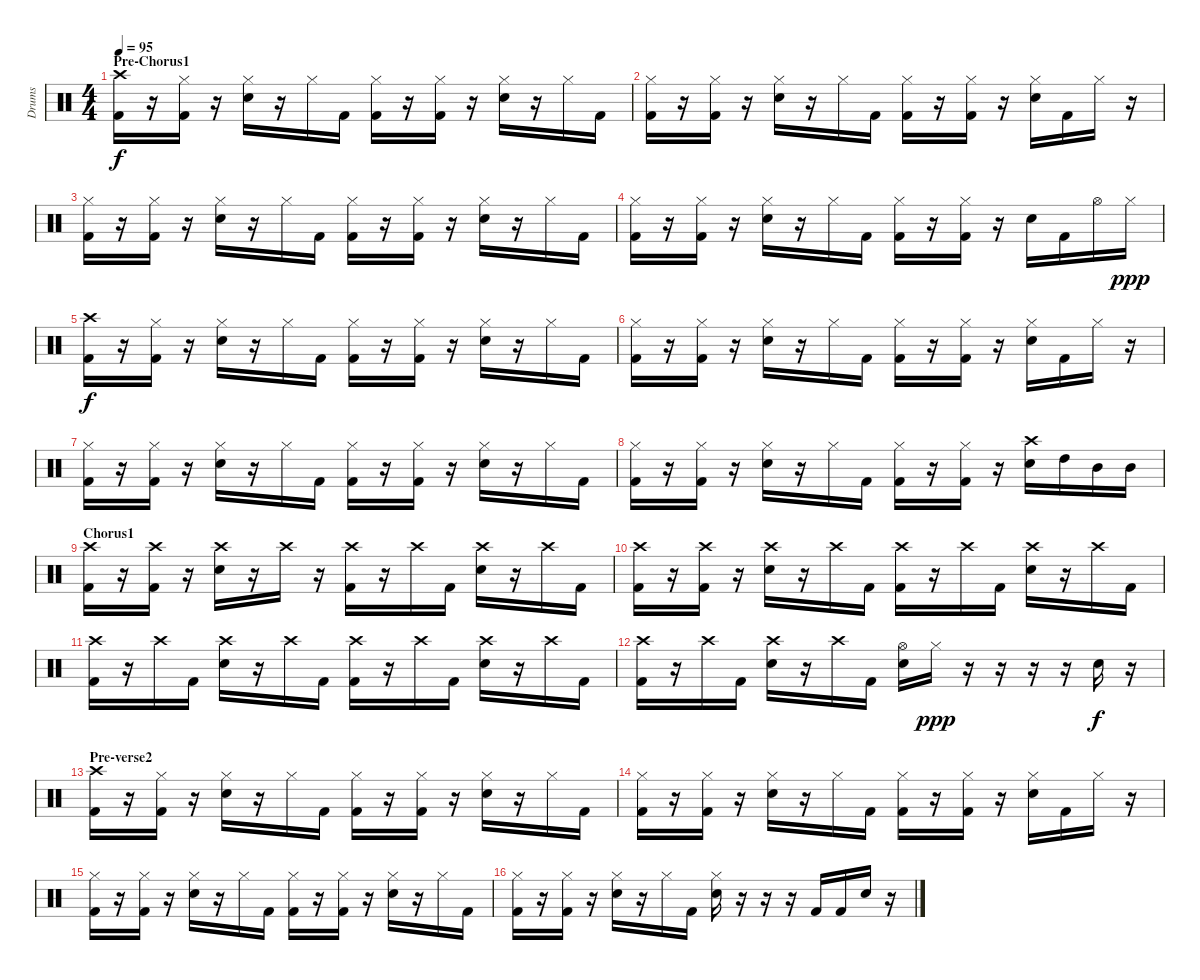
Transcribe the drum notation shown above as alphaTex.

\track ("Drums" "Drums") {instrument percussion}
\staff {score}
\articulation defaults
\ts (4 4)
\section ("" "Pre-Chorus1")
\tempo 95
\clef neutral
\ks c
("Crash high (hit)" "Kick (hit) 2").16{dy f} r.16 ("Hi-Hat (closed)" "Kick (hit) 2").16 r.16 ("Hi-Hat (closed)" "Snare (hit) 2").16 r.16 "Hi-Hat (closed)".16 "Kick (hit) 2".16 ("Hi-Hat (closed)" "Kick (hit) 2").16 r.16 ("Hi-Hat (closed)" "Kick (hit) 2").16 r.16 ("Hi-Hat (closed)" "Snare (hit) 2").16 r.16 "Hi-Hat (closed)".16 "Kick (hit) 2".16 |
("Hi-Hat (closed)" "Kick (hit) 2").16 r.16 ("Hi-Hat (closed)" "Kick (hit) 2").16 r.16 ("Hi-Hat (closed)" "Snare (hit) 2").16 r.16 "Hi-Hat (closed)".16 "Kick (hit) 2".16 ("Hi-Hat (closed)" "Kick (hit) 2").16 r.16 ("Hi-Hat (closed)" "Kick (hit) 2").16 r.16 ("Hi-Hat (closed)" "Snare (hit) 2").16 "Kick (hit) 2".16 "Hi-Hat (closed)".16 r.16 |
("Hi-Hat (closed)" "Kick (hit) 2").16 r.16 ("Hi-Hat (closed)" "Kick (hit) 2").16 r.16 ("Hi-Hat (closed)" "Snare (hit) 2").16 r.16 "Hi-Hat (closed)".16 "Kick (hit) 2".16 ("Hi-Hat (closed)" "Kick (hit) 2").16 r.16 ("Hi-Hat (closed)" "Kick (hit) 2").16 r.16 ("Hi-Hat (closed)" "Snare (hit) 2").16 r.16 "Hi-Hat (closed)".16 "Kick (hit) 2".16 |
("Hi-Hat (closed)" "Kick (hit) 2").16 r.16 ("Hi-Hat (closed)" "Kick (hit) 2").16 r.16 ("Hi-Hat (closed)" "Snare (hit) 2").16 r.16 "Hi-Hat (closed)".16 "Kick (hit) 2".16 ("Hi-Hat (closed)" "Kick (hit) 2").16 r.16 ("Hi-Hat (closed)" "Kick (hit) 2").16 r.16 "Snare (hit) 2".16 "Kick (hit) 2".16 "Hi-Hat (open)".16 "Hi-Hat (closed)".16{dy ppp} |
("Crash high (hit)" "Kick (hit) 2").16{dy f} r.16 ("Hi-Hat (closed)" "Kick (hit) 2").16 r.16 ("Hi-Hat (closed)" "Snare (hit) 2").16 r.16 "Hi-Hat (closed)".16 "Kick (hit) 2".16 ("Hi-Hat (closed)" "Kick (hit) 2").16 r.16 ("Hi-Hat (closed)" "Kick (hit) 2").16 r.16 ("Hi-Hat (closed)" "Snare (hit) 2").16 r.16 "Hi-Hat (closed)".16 "Kick (hit) 2".16 |
("Hi-Hat (closed)" "Kick (hit) 2").16 r.16 ("Hi-Hat (closed)" "Kick (hit) 2").16 r.16 ("Hi-Hat (closed)" "Snare (hit) 2").16 r.16 "Hi-Hat (closed)".16 "Kick (hit) 2".16 ("Hi-Hat (closed)" "Kick (hit) 2").16 r.16 ("Hi-Hat (closed)" "Kick (hit) 2").16 r.16 ("Hi-Hat (closed)" "Snare (hit) 2").16 "Kick (hit) 2".16 "Hi-Hat (closed)".16 r.16 |
("Hi-Hat (closed)" "Kick (hit) 2").16 r.16 ("Hi-Hat (closed)" "Kick (hit) 2").16 r.16 ("Hi-Hat (closed)" "Snare (hit) 2").16 r.16 "Hi-Hat (closed)".16 "Kick (hit) 2".16 ("Hi-Hat (closed)" "Kick (hit) 2").16 r.16 ("Hi-Hat (closed)" "Kick (hit) 2").16 r.16 ("Hi-Hat (closed)" "Snare (hit) 2").16 r.16 "Hi-Hat (closed)".16 "Kick (hit) 2".16 |
("Hi-Hat (closed)" "Kick (hit) 2").16 r.16 ("Hi-Hat (closed)" "Kick (hit) 2").16 r.16 ("Hi-Hat (closed)" "Snare (hit) 2").16 r.16 "Hi-Hat (closed)".16 "Kick (hit) 2".16 ("Hi-Hat (closed)" "Kick (hit) 2").16 r.16 ("Hi-Hat (closed)" "Kick (hit) 2").16 r.16 ("Crash high (hit)" "Snare (hit) 2").16 "High Tom (hit)".16 "Mid Tom (hit)".16 "Mid Tom (hit)".16 |
\section ("" "Chorus1")
("Crash high (hit)" "Kick (hit) 2").16 r.16 ("Crash high (hit)" "Kick (hit) 2").16 r.16 ("Crash high (hit)" "Snare (hit) 2").16 r.16 "Crash high (hit)".16 r.16 ("Crash high (hit)" "Kick (hit) 2").16 r.16 "Crash high (hit)".16 "Kick (hit) 2".16 ("Crash high (hit)" "Snare (hit) 2").16 r.16 "Crash high (hit)".16 "Kick (hit) 2".16 |
("Crash high (hit)" "Kick (hit) 2").16 r.16 ("Crash high (hit)" "Kick (hit) 2").16 r.16 ("Crash high (hit)" "Snare (hit) 2").16 r.16 "Crash high (hit)".16 "Kick (hit) 2".16 ("Crash high (hit)" "Kick (hit) 2").16 r.16 "Crash high (hit)".16 "Kick (hit) 2".16 ("Crash high (hit)" "Snare (hit) 2").16 r.16 "Crash high (hit)".16 "Kick (hit) 2".16 |
("Crash high (hit)" "Kick (hit) 2").16 r.16 "Crash high (hit)".16 "Kick (hit) 2".16 ("Crash high (hit)" "Snare (hit) 2").16 r.16 "Crash high (hit)".16 "Kick (hit) 2".16 ("Crash high (hit)" "Kick (hit) 2").16 r.16 "Crash high (hit)".16 "Kick (hit) 2".16 ("Crash high (hit)" "Snare (hit) 2").16 r.16 "Crash high (hit)".16 "Kick (hit) 2".16 |
("Crash high (hit)" "Kick (hit) 2").16 r.16 "Crash high (hit)".16 "Kick (hit) 2".16 ("Crash high (hit)" "Snare (hit) 2").16 r.16 "Crash high (hit)".16 "Kick (hit) 2".16 ("Hi-Hat (open)" "Snare (hit) 2").16 "Hi-Hat (closed)".16{dy ppp} r.16 r.16 r.16 r.16 "Snare (hit) 2".16{dy f} r.16 |
\section ("" "Pre-verse2")
("Crash high (hit)" "Kick (hit) 2").16 r.16 ("Hi-Hat (closed)" "Kick (hit) 2").16 r.16 ("Hi-Hat (closed)" "Snare (hit) 2").16 r.16 "Hi-Hat (closed)".16 "Kick (hit) 2".16 ("Hi-Hat (closed)" "Kick (hit) 2").16 r.16 ("Hi-Hat (closed)" "Kick (hit) 2").16 r.16 ("Hi-Hat (closed)" "Snare (hit) 2").16 r.16 "Hi-Hat (closed)".16 "Kick (hit) 2".16 |
("Hi-Hat (closed)" "Kick (hit) 2").16 r.16 ("Hi-Hat (closed)" "Kick (hit) 2").16 r.16 ("Hi-Hat (closed)" "Snare (hit) 2").16 r.16 "Hi-Hat (closed)".16 "Kick (hit) 2".16 ("Hi-Hat (closed)" "Kick (hit) 2").16 r.16 ("Hi-Hat (closed)" "Kick (hit) 2").16 r.16 ("Hi-Hat (closed)" "Snare (hit) 2").16 "Kick (hit) 2".16 "Hi-Hat (closed)".16 r.16 |
("Hi-Hat (closed)" "Kick (hit) 2").16 r.16 ("Hi-Hat (closed)" "Kick (hit) 2").16 r.16 ("Hi-Hat (closed)" "Snare (hit) 2").16 r.16 "Hi-Hat (closed)".16 "Kick (hit) 2".16 ("Hi-Hat (closed)" "Kick (hit) 2").16 r.16 ("Hi-Hat (closed)" "Kick (hit) 2").16 r.16 ("Hi-Hat (closed)" "Snare (hit) 2").16 r.16 "Hi-Hat (closed)".16 "Kick (hit) 2".16 |
("Hi-Hat (closed)" "Kick (hit) 2").16 r.16 ("Hi-Hat (closed)" "Kick (hit) 2").16 r.16 ("Hi-Hat (closed)" "Snare (hit) 2").16 r.16 "Hi-Hat (closed)".16 "Kick (hit) 2".16 ("Hi-Hat (closed)" "Snare (hit) 2").16 r.16 r.16 r.16 "Kick (hit) 2".16 "Kick (hit) 2".16 "Snare (hit) 2".16 r.16
